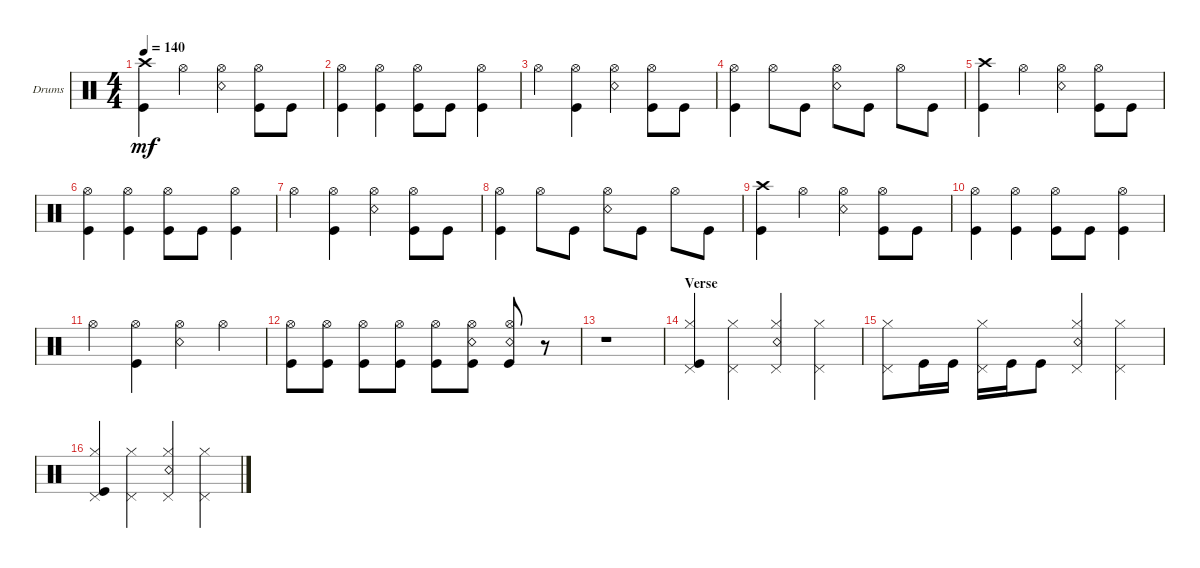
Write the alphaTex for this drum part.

\bracketExtendMode groupsimilarinstruments
\firstSystemTrackNameOrientation horizontal
\otherSystemsTrackNameOrientation horizontal
\track ("Drumkit" "Drums") {instrument percussion}
\staff {score}
\articulation defaults
\ts (4 4)
\tempo 140
\clef neutral
\ks c
("Kick (hit)" "Crash high (hit)").4{dy mf} "Hi-Hat (open)".4 ("Snare (rim shot)" "Hi-Hat (open)").4 ("Hi-Hat (open)" "Kick (hit)").8 "Kick (hit)".8 |
("Kick (hit)" "Hi-Hat (open)").4 ("Kick (hit)" "Hi-Hat (open)").4 ("Kick (hit)" "Hi-Hat (open)").8 "Kick (hit)".8 ("Kick (hit)" "Hi-Hat (open)").4 |
"Hi-Hat (open)".4 ("Hi-Hat (open)" "Kick (hit)").4 ("Hi-Hat (open)" "Snare (rim shot)").4 ("Hi-Hat (open)" "Kick (hit)").8 "Kick (hit)".8 |
("Kick (hit)" "Hi-Hat (open)").4 "Hi-Hat (open)".8 "Kick (hit)".8 ("Snare (rim shot)" "Hi-Hat (open)").8 "Kick (hit)".8 "Hi-Hat (open)".8 "Kick (hit)".8 |
("Kick (hit)" "Crash high (hit)").4 "Hi-Hat (open)".4 ("Snare (rim shot)" "Hi-Hat (open)").4 ("Hi-Hat (open)" "Kick (hit)").8 "Kick (hit)".8 |
("Kick (hit)" "Hi-Hat (open)").4 ("Kick (hit)" "Hi-Hat (open)").4 ("Kick (hit)" "Hi-Hat (open)").8 "Kick (hit)".8 ("Kick (hit)" "Hi-Hat (open)").4 |
"Hi-Hat (open)".4 ("Hi-Hat (open)" "Kick (hit)").4 ("Hi-Hat (open)" "Snare (rim shot)").4 ("Hi-Hat (open)" "Kick (hit)").8 "Kick (hit)".8 |
("Kick (hit)" "Hi-Hat (open)").4 "Hi-Hat (open)".8 "Kick (hit)".8 ("Snare (rim shot)" "Hi-Hat (open)").8 "Kick (hit)".8 "Hi-Hat (open)".8 "Kick (hit)".8 |
("Kick (hit)" "Crash high (hit)").4 "Hi-Hat (open)".4 ("Snare (rim shot)" "Hi-Hat (open)").4 ("Hi-Hat (open)" "Kick (hit)").8 "Kick (hit)".8 |
("Kick (hit)" "Hi-Hat (open)").4 ("Kick (hit)" "Hi-Hat (open)").4 ("Kick (hit)" "Hi-Hat (open)").8 "Kick (hit)".8 ("Kick (hit)" "Hi-Hat (open)").4 |
"Hi-Hat (open)".4 ("Hi-Hat (open)" "Kick (hit)").4 ("Hi-Hat (open)" "Snare (rim shot)").4 "Hi-Hat (open)".4 |
("Kick (hit)" "Hi-Hat (open)").8 ("Kick (hit)" "Hi-Hat (open)").8 ("Kick (hit)" "Hi-Hat (open)").8 ("Kick (hit)" "Hi-Hat (open)").8 ("Kick (hit)" "Hi-Hat (open)").8 ("Kick (hit)" "Snare (rim shot)" "Hi-Hat (open)").8 ("Kick (hit)" "Snare (rim shot)" "Hi-Hat (open)").8 r.8 |
r.1 |
\section ("" "Verse")
("Kick (hit)" "Hi-Hat (closed)" "Pedal Hi-Hat (hit)").4 ("Hi-Hat (closed)" "Pedal Hi-Hat (hit)").4 ("Hi-Hat (closed)" "Snare (rim shot)" "Pedal Hi-Hat (hit)").4 ("Hi-Hat (closed)" "Pedal Hi-Hat (hit)").4 |
("Hi-Hat (closed)" "Pedal Hi-Hat (hit)").8 "Kick (hit)".16 "Kick (hit)".16 ("Hi-Hat (closed)" "Pedal Hi-Hat (hit)").16 "Kick (hit)".16 "Kick (hit)".8 ("Snare (rim shot)" "Hi-Hat (closed)" "Pedal Hi-Hat (hit)").4 ("Hi-Hat (closed)" "Pedal Hi-Hat (hit)").4 |
("Kick (hit)" "Hi-Hat (closed)" "Pedal Hi-Hat (hit)").4 ("Hi-Hat (closed)" "Pedal Hi-Hat (hit)").4 ("Hi-Hat (closed)" "Snare (rim shot)" "Pedal Hi-Hat (hit)").4 ("Hi-Hat (closed)" "Pedal Hi-Hat (hit)").4
